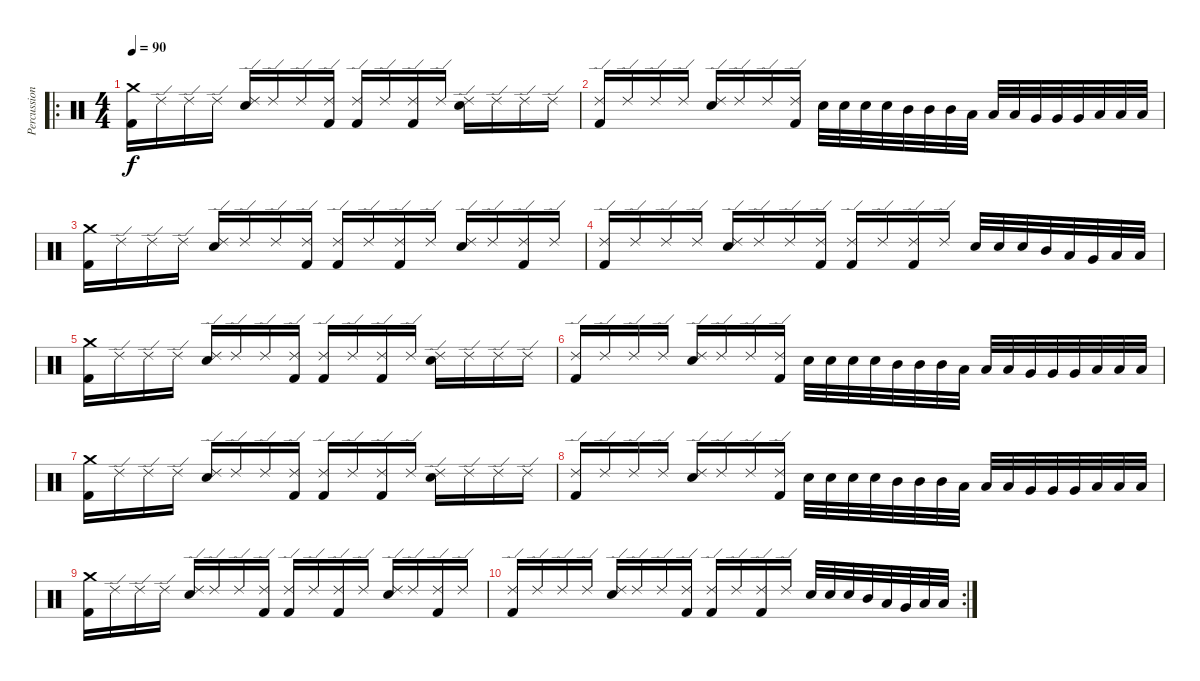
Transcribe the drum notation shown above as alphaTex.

\track ("Percussion" "Percussion") {instrument percussion}
\staff {score}
\articulation defaults
\ro
\ts (4 4)
\tempo 90
\clef neutral
\ks c
("Crash medium (hit)" "Kick (hit) 2").16{dy f} "Ride (edge) 2".16 "Ride (edge) 2".16 "Ride (edge) 2".16 ("Ride (edge) 2" "Snare (hit) 2").16 "Ride (edge) 2".16 "Ride (edge) 2".16 ("Ride (edge) 2" "Kick (hit) 2").16 ("Ride (edge) 2" "Kick (hit) 2").16 "Ride (edge) 2".16 ("Ride (edge) 2" "Kick (hit) 2").16 "Ride (edge) 2".16 ("Ride (edge) 2" "Snare (hit) 2").16 "Ride (edge) 2".16 "Ride (edge) 2".16 "Ride (edge) 2".16 |
("Ride (edge) 2" "Kick (hit) 2").16 "Ride (edge) 2".16 "Ride (edge) 2".16 "Ride (edge) 2".16 ("Ride (edge) 2" "Snare (hit) 2").16 "Ride (edge) 2".16 "Ride (edge) 2".16 ("Ride (edge) 2" "Kick (hit) 2").16 "Snare (hit) 2".32 "Snare (hit) 2".32 "Snare (hit) 2".32 "Snare (hit) 2".32 "Mid Tom (hit)".32 "Mid Tom (hit)".32 "Mid Tom (hit)".32 "Low Tom (hit)".32 "Low Tom (hit)".32 "Low Tom (hit)".32 "Very Low Tom (hit)".32 "Very Low Tom (hit)".32 "Very Low Tom (hit)".32 "Low Floor Tom (hit)".32 "Low Floor Tom (hit)".32 "Low Floor Tom (hit)".32 |
("Crash medium (hit)" "Kick (hit) 2").16 "Ride (edge) 2".16 "Ride (edge) 2".16 "Ride (edge) 2".16 ("Ride (edge) 2" "Snare (hit) 2").16 "Ride (edge) 2".16 "Ride (edge) 2".16 ("Ride (edge) 2" "Kick (hit) 2").16 ("Ride (edge) 2" "Kick (hit) 2").16 "Ride (edge) 2".16 ("Ride (edge) 2" "Kick (hit) 2").16 "Ride (edge) 2".16 ("Ride (edge) 2" "Snare (hit) 2").16 "Ride (edge) 2".16 ("Ride (edge) 2" "Kick (hit) 2").16 "Ride (edge) 2".16 |
("Ride (edge) 2" "Kick (hit) 2").16 "Ride (edge) 2".16 "Ride (edge) 2".16 "Ride (edge) 2".16 ("Ride (edge) 2" "Snare (hit) 2").16 "Ride (edge) 2".16 "Ride (edge) 2".16 ("Ride (edge) 2" "Kick (hit) 2").16 ("Ride (edge) 2" "Kick (hit) 2").16 "Ride (edge) 2".16 ("Ride (edge) 2" "Kick (hit) 2").16 "Ride (edge) 2".16 "Snare (hit) 2".32 "Snare (hit) 2".32 "Snare (hit) 2".32 "Mid Tom (hit)".32 "Low Tom (hit)".32 "Very Low Tom (hit)".32 "Low Floor Tom (hit)".32 "Low Floor Tom (hit)".32 |
("Crash medium (hit)" "Kick (hit) 2").16 "Ride (edge) 2".16 "Ride (edge) 2".16 "Ride (edge) 2".16 ("Ride (edge) 2" "Snare (hit) 2").16 "Ride (edge) 2".16 "Ride (edge) 2".16 ("Ride (edge) 2" "Kick (hit) 2").16 ("Ride (edge) 2" "Kick (hit) 2").16 "Ride (edge) 2".16 ("Ride (edge) 2" "Kick (hit) 2").16 "Ride (edge) 2".16 ("Ride (edge) 2" "Snare (hit) 2").16 "Ride (edge) 2".16 "Ride (edge) 2".16 "Ride (edge) 2".16 |
("Ride (edge) 2" "Kick (hit) 2").16 "Ride (edge) 2".16 "Ride (edge) 2".16 "Ride (edge) 2".16 ("Ride (edge) 2" "Snare (hit) 2").16 "Ride (edge) 2".16 "Ride (edge) 2".16 ("Ride (edge) 2" "Kick (hit) 2").16 "Snare (hit) 2".32 "Snare (hit) 2".32 "Snare (hit) 2".32 "Snare (hit) 2".32 "Mid Tom (hit)".32 "Mid Tom (hit)".32 "Mid Tom (hit)".32 "Low Tom (hit)".32 "Low Tom (hit)".32 "Low Tom (hit)".32 "Very Low Tom (hit)".32 "Very Low Tom (hit)".32 "Very Low Tom (hit)".32 "Low Floor Tom (hit)".32 "Low Floor Tom (hit)".32 "Low Floor Tom (hit)".32 |
("Crash medium (hit)" "Kick (hit) 2").16 "Ride (edge) 2".16 "Ride (edge) 2".16 "Ride (edge) 2".16 ("Ride (edge) 2" "Snare (hit) 2").16 "Ride (edge) 2".16 "Ride (edge) 2".16 ("Ride (edge) 2" "Kick (hit) 2").16 ("Ride (edge) 2" "Kick (hit) 2").16 "Ride (edge) 2".16 ("Ride (edge) 2" "Kick (hit) 2").16 "Ride (edge) 2".16 ("Ride (edge) 2" "Snare (hit) 2").16 "Ride (edge) 2".16 "Ride (edge) 2".16 "Ride (edge) 2".16 |
("Ride (edge) 2" "Kick (hit) 2").16 "Ride (edge) 2".16 "Ride (edge) 2".16 "Ride (edge) 2".16 ("Ride (edge) 2" "Snare (hit) 2").16 "Ride (edge) 2".16 "Ride (edge) 2".16 ("Ride (edge) 2" "Kick (hit) 2").16 "Snare (hit) 2".32 "Snare (hit) 2".32 "Snare (hit) 2".32 "Snare (hit) 2".32 "Mid Tom (hit)".32 "Mid Tom (hit)".32 "Mid Tom (hit)".32 "Low Tom (hit)".32 "Low Tom (hit)".32 "Low Tom (hit)".32 "Very Low Tom (hit)".32 "Very Low Tom (hit)".32 "Very Low Tom (hit)".32 "Low Floor Tom (hit)".32 "Low Floor Tom (hit)".32 "Low Floor Tom (hit)".32 |
("Crash medium (hit)" "Kick (hit) 2").16 "Ride (edge) 2".16 "Ride (edge) 2".16 "Ride (edge) 2".16 ("Ride (edge) 2" "Snare (hit) 2").16 "Ride (edge) 2".16 "Ride (edge) 2".16 ("Ride (edge) 2" "Kick (hit) 2").16 ("Ride (edge) 2" "Kick (hit) 2").16 "Ride (edge) 2".16 ("Ride (edge) 2" "Kick (hit) 2").16 "Ride (edge) 2".16 ("Ride (edge) 2" "Snare (hit) 2").16 "Ride (edge) 2".16 ("Ride (edge) 2" "Kick (hit) 2").16 "Ride (edge) 2".16 |
\rc 2
("Ride (edge) 2" "Kick (hit) 2").16 "Ride (edge) 2".16 "Ride (edge) 2".16 "Ride (edge) 2".16 ("Ride (edge) 2" "Snare (hit) 2").16 "Ride (edge) 2".16 "Ride (edge) 2".16 ("Ride (edge) 2" "Kick (hit) 2").16 ("Ride (edge) 2" "Kick (hit) 2").16 "Ride (edge) 2".16 ("Ride (edge) 2" "Kick (hit) 2").16 "Ride (edge) 2".16 "Snare (hit) 2".32 "Snare (hit) 2".32 "Snare (hit) 2".32 "Mid Tom (hit)".32 "Low Tom (hit)".32 "Very Low Tom (hit)".32 "Low Floor Tom (hit)".32 "Low Floor Tom (hit)".32
